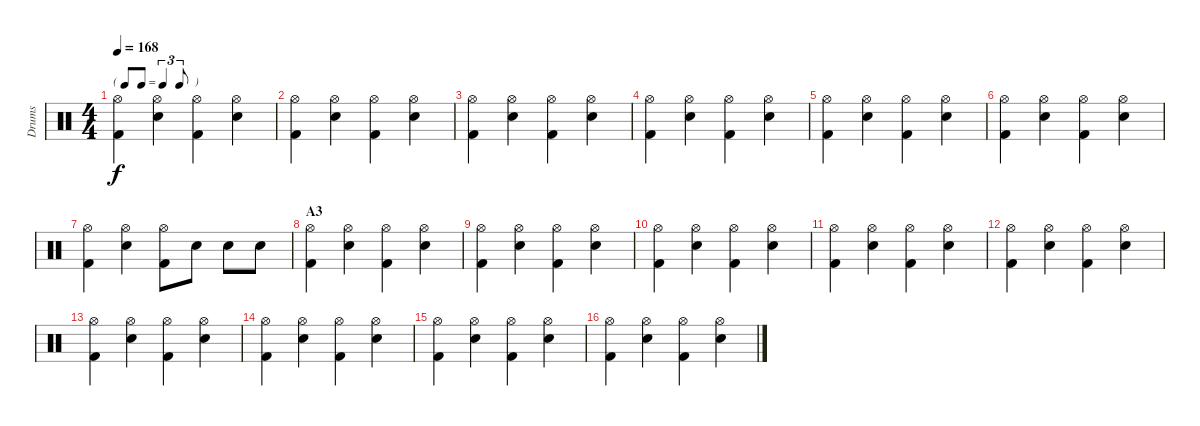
\track ("Drums" "Drums") {instrument percussion}
\staff {score}
\articulation defaults
\ts (4 4)
\tf triplet8th
\tempo 168
\clef neutral
\ks c
("Hi-Hat (open)" "Kick (hit) 2").4{dy f} ("Hi-Hat (open)" "Snare (hit) 2").4 ("Hi-Hat (open)" "Kick (hit) 2").4 ("Hi-Hat (open)" "Snare (hit) 2").4 |
("Hi-Hat (open)" "Kick (hit) 2").4 ("Hi-Hat (open)" "Snare (hit) 2").4 ("Hi-Hat (open)" "Kick (hit) 2").4 ("Hi-Hat (open)" "Snare (hit) 2").4 |
("Hi-Hat (open)" "Kick (hit) 2").4 ("Hi-Hat (open)" "Snare (hit) 2").4 ("Hi-Hat (open)" "Kick (hit) 2").4 ("Hi-Hat (open)" "Snare (hit) 2").4 |
("Hi-Hat (open)" "Kick (hit) 2").4 ("Hi-Hat (open)" "Snare (hit) 2").4 ("Hi-Hat (open)" "Kick (hit) 2").4 ("Hi-Hat (open)" "Snare (hit) 2").4 |
("Hi-Hat (open)" "Kick (hit) 2").4 ("Hi-Hat (open)" "Snare (hit) 2").4 ("Hi-Hat (open)" "Kick (hit) 2").4 ("Hi-Hat (open)" "Snare (hit) 2").4 |
("Hi-Hat (open)" "Kick (hit) 2").4 ("Hi-Hat (open)" "Snare (hit) 2").4 ("Hi-Hat (open)" "Kick (hit) 2").4 ("Hi-Hat (open)" "Snare (hit) 2").4 |
("Hi-Hat (open)" "Kick (hit) 2").4 ("Hi-Hat (open)" "Snare (hit) 2").4 ("Hi-Hat (open)" "Kick (hit) 2").8 "Snare (hit) 2".8 "Snare (hit) 2".8 "Snare (hit) 2".8 |
\section ("" "A3")
("Hi-Hat (open)" "Kick (hit) 2").4 ("Hi-Hat (open)" "Snare (hit) 2").4 ("Hi-Hat (open)" "Kick (hit) 2").4 ("Hi-Hat (open)" "Snare (hit) 2").4 |
("Hi-Hat (open)" "Kick (hit) 2").4 ("Hi-Hat (open)" "Snare (hit) 2").4 ("Hi-Hat (open)" "Kick (hit) 2").4 ("Hi-Hat (open)" "Snare (hit) 2").4 |
("Hi-Hat (open)" "Kick (hit) 2").4 ("Hi-Hat (open)" "Snare (hit) 2").4 ("Hi-Hat (open)" "Kick (hit) 2").4 ("Hi-Hat (open)" "Snare (hit) 2").4 |
("Hi-Hat (open)" "Kick (hit) 2").4 ("Hi-Hat (open)" "Snare (hit) 2").4 ("Hi-Hat (open)" "Kick (hit) 2").4 ("Hi-Hat (open)" "Snare (hit) 2").4 |
("Hi-Hat (open)" "Kick (hit) 2").4 ("Hi-Hat (open)" "Snare (hit) 2").4 ("Hi-Hat (open)" "Kick (hit) 2").4 ("Hi-Hat (open)" "Snare (hit) 2").4 |
("Hi-Hat (open)" "Kick (hit) 2").4 ("Hi-Hat (open)" "Snare (hit) 2").4 ("Hi-Hat (open)" "Kick (hit) 2").4 ("Hi-Hat (open)" "Snare (hit) 2").4 |
("Hi-Hat (open)" "Kick (hit) 2").4 ("Hi-Hat (open)" "Snare (hit) 2").4 ("Hi-Hat (open)" "Kick (hit) 2").4 ("Hi-Hat (open)" "Snare (hit) 2").4 |
("Hi-Hat (open)" "Kick (hit) 2").4 ("Hi-Hat (open)" "Snare (hit) 2").4 ("Hi-Hat (open)" "Kick (hit) 2").4 ("Hi-Hat (open)" "Snare (hit) 2").4 |
("Hi-Hat (open)" "Kick (hit) 2").4 ("Hi-Hat (open)" "Snare (hit) 2").4 ("Hi-Hat (open)" "Kick (hit) 2").4 ("Hi-Hat (open)" "Snare (hit) 2").4
